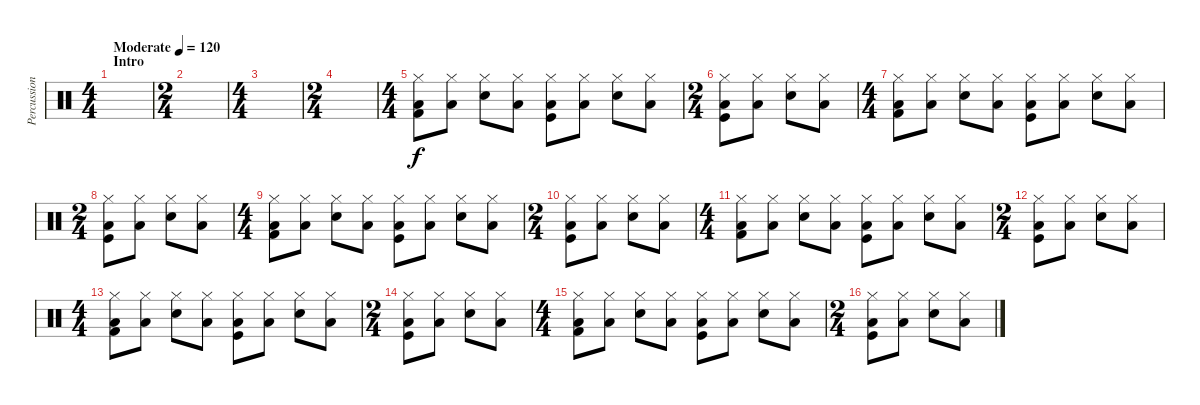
\track ("Percussion" "Percussion") {instrument percussion}
\staff
\articulation defaults
\ts (4 4)
\section ("" "Intro")
\tempo (120 "Moderate")
\clef neutral
\ks c
|
\ts (2 4)
|
\ts (4 4)
|
\ts (2 4)
|
\ts (4 4)
("Hi-Hat (closed)" "Low Floor Tom (hit)" "Kick (hit) 2").8 ("Hi-Hat (closed)" "Low Floor Tom (hit)").8 ("Hi-Hat (closed)" "Snare (hit) 2").8 ("Hi-Hat (closed)" "Low Floor Tom (hit)").8 ("Hi-Hat (closed)" "Low Floor Tom (hit)" "Kick (hit)").8 ("Hi-Hat (closed)" "Low Floor Tom (hit)").8 ("Hi-Hat (closed)" "Snare (hit) 2").8 ("Hi-Hat (closed)" "Low Floor Tom (hit)").8 |
\ts (2 4)
("Hi-Hat (closed)" "Low Floor Tom (hit)" "Kick (hit)").8 ("Hi-Hat (closed)" "Low Floor Tom (hit)").8 ("Hi-Hat (closed)" "Snare (hit) 2").8 ("Hi-Hat (closed)" "Low Floor Tom (hit)").8 |
\ts (4 4)
("Hi-Hat (closed)" "Low Floor Tom (hit)" "Kick (hit) 2").8 ("Hi-Hat (closed)" "Low Floor Tom (hit)").8 ("Hi-Hat (closed)" "Snare (hit) 2").8 ("Hi-Hat (closed)" "Low Floor Tom (hit)").8 ("Hi-Hat (closed)" "Low Floor Tom (hit)" "Kick (hit)").8 ("Hi-Hat (closed)" "Low Floor Tom (hit)").8 ("Hi-Hat (closed)" "Snare (hit) 2").8 ("Hi-Hat (closed)" "Low Floor Tom (hit)").8 |
\ts (2 4)
("Hi-Hat (closed)" "Low Floor Tom (hit)" "Kick (hit)").8 ("Hi-Hat (closed)" "Low Floor Tom (hit)").8 ("Hi-Hat (closed)" "Snare (hit) 2").8 ("Hi-Hat (closed)" "Low Floor Tom (hit)").8 |
\ts (4 4)
("Hi-Hat (closed)" "Low Floor Tom (hit)" "Kick (hit) 2").8 ("Hi-Hat (closed)" "Low Floor Tom (hit)").8 ("Hi-Hat (closed)" "Snare (hit) 2").8 ("Hi-Hat (closed)" "Low Floor Tom (hit)").8 ("Hi-Hat (closed)" "Low Floor Tom (hit)" "Kick (hit)").8 ("Hi-Hat (closed)" "Low Floor Tom (hit)").8 ("Hi-Hat (closed)" "Snare (hit) 2").8 ("Hi-Hat (closed)" "Low Floor Tom (hit)").8 |
\ts (2 4)
("Hi-Hat (closed)" "Low Floor Tom (hit)" "Kick (hit)").8 ("Hi-Hat (closed)" "Low Floor Tom (hit)").8 ("Hi-Hat (closed)" "Snare (hit) 2").8 ("Hi-Hat (closed)" "Low Floor Tom (hit)").8 |
\ts (4 4)
("Hi-Hat (closed)" "Low Floor Tom (hit)" "Kick (hit) 2").8 ("Hi-Hat (closed)" "Low Floor Tom (hit)").8 ("Hi-Hat (closed)" "Snare (hit) 2").8 ("Hi-Hat (closed)" "Low Floor Tom (hit)").8 ("Hi-Hat (closed)" "Low Floor Tom (hit)" "Kick (hit)").8 ("Hi-Hat (closed)" "Low Floor Tom (hit)").8 ("Hi-Hat (closed)" "Snare (hit) 2").8 ("Hi-Hat (closed)" "Low Floor Tom (hit)").8 |
\ts (2 4)
("Hi-Hat (closed)" "Low Floor Tom (hit)" "Kick (hit)").8 ("Hi-Hat (closed)" "Low Floor Tom (hit)").8 ("Hi-Hat (closed)" "Snare (hit) 2").8 ("Hi-Hat (closed)" "Low Floor Tom (hit)").8 |
\ts (4 4)
("Hi-Hat (closed)" "Low Floor Tom (hit)" "Kick (hit) 2").8 ("Hi-Hat (closed)" "Low Floor Tom (hit)").8 ("Hi-Hat (closed)" "Snare (hit) 2").8 ("Hi-Hat (closed)" "Low Floor Tom (hit)").8 ("Hi-Hat (closed)" "Low Floor Tom (hit)" "Kick (hit)").8 ("Hi-Hat (closed)" "Low Floor Tom (hit)").8 ("Hi-Hat (closed)" "Snare (hit) 2").8 ("Hi-Hat (closed)" "Low Floor Tom (hit)").8 |
\ts (2 4)
("Hi-Hat (closed)" "Low Floor Tom (hit)" "Kick (hit)").8 ("Hi-Hat (closed)" "Low Floor Tom (hit)").8 ("Hi-Hat (closed)" "Snare (hit) 2").8 ("Hi-Hat (closed)" "Low Floor Tom (hit)").8 |
\ts (4 4)
("Hi-Hat (closed)" "Low Floor Tom (hit)" "Kick (hit) 2").8 ("Hi-Hat (closed)" "Low Floor Tom (hit)").8 ("Hi-Hat (closed)" "Snare (hit) 2").8 ("Hi-Hat (closed)" "Low Floor Tom (hit)").8 ("Hi-Hat (closed)" "Low Floor Tom (hit)" "Kick (hit)").8 ("Hi-Hat (closed)" "Low Floor Tom (hit)").8 ("Hi-Hat (closed)" "Snare (hit) 2").8 ("Hi-Hat (closed)" "Low Floor Tom (hit)").8 |
\ts (2 4)
("Hi-Hat (closed)" "Low Floor Tom (hit)" "Kick (hit)").8 ("Hi-Hat (closed)" "Low Floor Tom (hit)").8 ("Hi-Hat (closed)" "Snare (hit) 2").8 ("Hi-Hat (closed)" "Low Floor Tom (hit)").8
